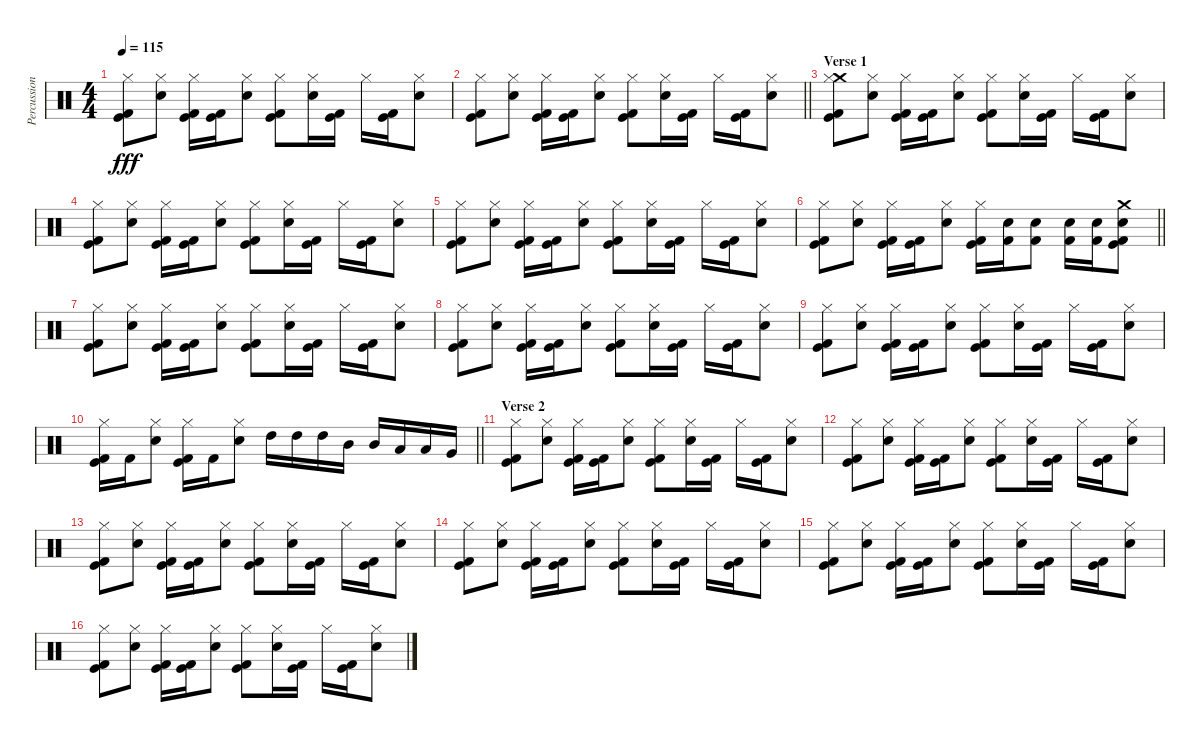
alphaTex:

\track ("Percussion" "Percussion") {instrument percussion}
\staff {score}
\articulation defaults
\ts (4 4)
\tempo 115
\clef neutral
\ks c
("Hi-Hat (closed)" "Kick (hit)" "Kick (hit) 2").8{dy fff} ("Snare (hit) 2" "Hi-Hat (closed)").8 ("Hi-Hat (closed)" "Kick (hit)" "Kick (hit) 2").16 ("Kick (hit)" "Kick (hit) 2").16 ("Snare (hit) 2" "Hi-Hat (closed)").8 ("Hi-Hat (closed)" "Kick (hit)" "Kick (hit) 2").8 ("Snare (hit) 2" "Hi-Hat (closed)").16 ("Kick (hit)" "Kick (hit) 2").16 "Hi-Hat (closed)".16 ("Kick (hit)" "Kick (hit) 2").16 ("Snare (hit) 2" "Hi-Hat (closed)").8 |
\barLineRight lightlight
("Hi-Hat (closed)" "Kick (hit)" "Kick (hit) 2").8 ("Snare (hit) 2" "Hi-Hat (closed)").8 ("Hi-Hat (closed)" "Kick (hit)" "Kick (hit) 2").16 ("Kick (hit)" "Kick (hit) 2").16 ("Snare (hit) 2" "Hi-Hat (closed)").8 ("Hi-Hat (closed)" "Kick (hit)" "Kick (hit) 2").8 ("Snare (hit) 2" "Hi-Hat (closed)").16 ("Kick (hit)" "Kick (hit) 2").16 "Hi-Hat (closed)".16 ("Kick (hit)" "Kick (hit) 2").16 ("Snare (hit) 2" "Hi-Hat (closed)").8 |
\section ("" "Verse 1")
("Crash medium (hit)" "Hi-Hat (closed)" "Kick (hit)" "Kick (hit) 2").8 ("Snare (hit) 2" "Hi-Hat (closed)").8 ("Hi-Hat (closed)" "Kick (hit)" "Kick (hit) 2").16 ("Kick (hit)" "Kick (hit) 2").16 ("Snare (hit) 2" "Hi-Hat (closed)").8 ("Hi-Hat (closed)" "Kick (hit)" "Kick (hit) 2").8 ("Snare (hit) 2" "Hi-Hat (closed)").16 ("Kick (hit)" "Kick (hit) 2").16 "Hi-Hat (closed)".16 ("Kick (hit)" "Kick (hit) 2").16 ("Snare (hit) 2" "Hi-Hat (closed)").8 |
("Hi-Hat (closed)" "Kick (hit)" "Kick (hit) 2").8 ("Snare (hit) 2" "Hi-Hat (closed)").8 ("Hi-Hat (closed)" "Kick (hit)" "Kick (hit) 2").16 ("Kick (hit)" "Kick (hit) 2").16 ("Snare (hit) 2" "Hi-Hat (closed)").8 ("Hi-Hat (closed)" "Kick (hit)" "Kick (hit) 2").8 ("Snare (hit) 2" "Hi-Hat (closed)").16 ("Kick (hit)" "Kick (hit) 2").16 "Hi-Hat (closed)".16 ("Kick (hit)" "Kick (hit) 2").16 ("Snare (hit) 2" "Hi-Hat (closed)").8 |
("Hi-Hat (closed)" "Kick (hit)" "Kick (hit) 2").8 ("Snare (hit) 2" "Hi-Hat (closed)").8 ("Hi-Hat (closed)" "Kick (hit)" "Kick (hit) 2").16 ("Kick (hit)" "Kick (hit) 2").16 ("Snare (hit) 2" "Hi-Hat (closed)").8 ("Hi-Hat (closed)" "Kick (hit)" "Kick (hit) 2").8 ("Snare (hit) 2" "Hi-Hat (closed)").16 ("Kick (hit)" "Kick (hit) 2").16 "Hi-Hat (closed)".16 ("Kick (hit)" "Kick (hit) 2").16 ("Snare (hit) 2" "Hi-Hat (closed)").8 |
\barLineRight lightlight
("Hi-Hat (closed)" "Kick (hit)" "Kick (hit) 2").8 ("Snare (hit) 2" "Hi-Hat (closed)").8 ("Hi-Hat (closed)" "Kick (hit)" "Kick (hit) 2").16 ("Kick (hit)" "Kick (hit) 2").16 ("Snare (hit) 2" "Hi-Hat (closed)").8 ("Hi-Hat (closed)" "Kick (hit)" "Kick (hit) 2").16 ("Snare (hit) 2" "Kick (hit) 2").16 ("Snare (hit) 2" "Kick (hit) 2").8 ("Snare (hit) 2" "Kick (hit) 2").16 ("Snare (hit) 2" "Kick (hit) 2").16 ("Crash medium (hit)" "Snare (hit) 2" "Kick (hit)" "Kick (hit) 2").8 |
("Hi-Hat (closed)" "Kick (hit)" "Kick (hit) 2").8 ("Snare (hit) 2" "Hi-Hat (closed)").8 ("Hi-Hat (closed)" "Kick (hit)" "Kick (hit) 2").16 ("Kick (hit)" "Kick (hit) 2").16 ("Snare (hit) 2" "Hi-Hat (closed)").8 ("Hi-Hat (closed)" "Kick (hit)" "Kick (hit) 2").8 ("Snare (hit) 2" "Hi-Hat (closed)").16 ("Kick (hit)" "Kick (hit) 2").16 "Hi-Hat (closed)".16 ("Kick (hit)" "Kick (hit) 2").16 ("Snare (hit) 2" "Hi-Hat (closed)").8 |
("Hi-Hat (closed)" "Kick (hit)" "Kick (hit) 2").8 ("Snare (hit) 2" "Hi-Hat (closed)").8 ("Hi-Hat (closed)" "Kick (hit)" "Kick (hit) 2").16 ("Kick (hit)" "Kick (hit) 2").16 ("Snare (hit) 2" "Hi-Hat (closed)").8 ("Hi-Hat (closed)" "Kick (hit)" "Kick (hit) 2").8 ("Snare (hit) 2" "Hi-Hat (closed)").16 ("Kick (hit)" "Kick (hit) 2").16 "Hi-Hat (closed)".16 ("Kick (hit)" "Kick (hit) 2").16 ("Snare (hit) 2" "Hi-Hat (closed)").8 |
("Hi-Hat (closed)" "Kick (hit)" "Kick (hit) 2").8 ("Snare (hit) 2" "Hi-Hat (closed)").8 ("Hi-Hat (closed)" "Kick (hit)" "Kick (hit) 2").16 ("Kick (hit)" "Kick (hit) 2").16 ("Snare (hit) 2" "Hi-Hat (closed)").8 ("Hi-Hat (closed)" "Kick (hit)" "Kick (hit) 2").8 ("Snare (hit) 2" "Hi-Hat (closed)").16 ("Kick (hit)" "Kick (hit) 2").16 "Hi-Hat (closed)".16 ("Kick (hit)" "Kick (hit) 2").16 ("Snare (hit) 2" "Hi-Hat (closed)").8 |
\barLineRight lightlight
("Hi-Hat (closed)" "Kick (hit)" "Kick (hit) 2").16 "Kick (hit) 2".16 ("Snare (hit) 2" "Hi-Hat (closed)").8 ("Hi-Hat (closed)" "Kick (hit)" "Kick (hit) 2").16 "Kick (hit) 2".16 ("Snare (hit) 2" "Hi-Hat (closed)").8 "High Tom (hit)".16 "High Tom (hit)".16 "High Tom (hit)".16 "Mid Tom (hit)".16 "Mid Tom (hit)".16 "Low Tom (hit)".16 "Low Tom (hit)".16 "Very Low Tom (hit)".16 |
\section ("" "Verse 2")
("Hi-Hat (closed)" "Kick (hit)" "Kick (hit) 2").8 ("Snare (hit) 2" "Hi-Hat (closed)").8 ("Hi-Hat (closed)" "Kick (hit)" "Kick (hit) 2").16 ("Kick (hit)" "Kick (hit) 2").16 ("Snare (hit) 2" "Hi-Hat (closed)").8 ("Hi-Hat (closed)" "Kick (hit)" "Kick (hit) 2").8 ("Snare (hit) 2" "Hi-Hat (closed)").16 ("Kick (hit)" "Kick (hit) 2").16 "Hi-Hat (closed)".16 ("Kick (hit)" "Kick (hit) 2").16 ("Snare (hit) 2" "Hi-Hat (closed)").8 |
("Hi-Hat (closed)" "Kick (hit)" "Kick (hit) 2").8 ("Snare (hit) 2" "Hi-Hat (closed)").8 ("Hi-Hat (closed)" "Kick (hit)" "Kick (hit) 2").16 ("Kick (hit)" "Kick (hit) 2").16 ("Snare (hit) 2" "Hi-Hat (closed)").8 ("Hi-Hat (closed)" "Kick (hit)" "Kick (hit) 2").8 ("Snare (hit) 2" "Hi-Hat (closed)").16 ("Kick (hit)" "Kick (hit) 2").16 "Hi-Hat (closed)".16 ("Kick (hit)" "Kick (hit) 2").16 ("Snare (hit) 2" "Hi-Hat (closed)").8 |
("Hi-Hat (closed)" "Kick (hit)" "Kick (hit) 2").8 ("Snare (hit) 2" "Hi-Hat (closed)").8 ("Hi-Hat (closed)" "Kick (hit)" "Kick (hit) 2").16 ("Kick (hit)" "Kick (hit) 2").16 ("Snare (hit) 2" "Hi-Hat (closed)").8 ("Hi-Hat (closed)" "Kick (hit)" "Kick (hit) 2").8 ("Snare (hit) 2" "Hi-Hat (closed)").16 ("Kick (hit)" "Kick (hit) 2").16 "Hi-Hat (closed)".16 ("Kick (hit)" "Kick (hit) 2").16 ("Snare (hit) 2" "Hi-Hat (closed)").8 |
("Hi-Hat (closed)" "Kick (hit)" "Kick (hit) 2").8 ("Snare (hit) 2" "Hi-Hat (closed)").8 ("Hi-Hat (closed)" "Kick (hit)" "Kick (hit) 2").16 ("Kick (hit)" "Kick (hit) 2").16 ("Snare (hit) 2" "Hi-Hat (closed)").8 ("Hi-Hat (closed)" "Kick (hit)" "Kick (hit) 2").8 ("Snare (hit) 2" "Hi-Hat (closed)").16 ("Kick (hit)" "Kick (hit) 2").16 "Hi-Hat (closed)".16 ("Kick (hit)" "Kick (hit) 2").16 ("Snare (hit) 2" "Hi-Hat (closed)").8 |
("Hi-Hat (closed)" "Kick (hit)" "Kick (hit) 2").8 ("Snare (hit) 2" "Hi-Hat (closed)").8 ("Hi-Hat (closed)" "Kick (hit)" "Kick (hit) 2").16 ("Kick (hit)" "Kick (hit) 2").16 ("Snare (hit) 2" "Hi-Hat (closed)").8 ("Hi-Hat (closed)" "Kick (hit)" "Kick (hit) 2").8 ("Snare (hit) 2" "Hi-Hat (closed)").16 ("Kick (hit)" "Kick (hit) 2").16 "Hi-Hat (closed)".16 ("Kick (hit)" "Kick (hit) 2").16 ("Snare (hit) 2" "Hi-Hat (closed)").8 |
("Hi-Hat (closed)" "Kick (hit)" "Kick (hit) 2").8 ("Snare (hit) 2" "Hi-Hat (closed)").8 ("Hi-Hat (closed)" "Kick (hit)" "Kick (hit) 2").16 ("Kick (hit)" "Kick (hit) 2").16 ("Snare (hit) 2" "Hi-Hat (closed)").8 ("Hi-Hat (closed)" "Kick (hit)" "Kick (hit) 2").8 ("Snare (hit) 2" "Hi-Hat (closed)").16 ("Kick (hit)" "Kick (hit) 2").16 "Hi-Hat (closed)".16 ("Kick (hit)" "Kick (hit) 2").16 ("Snare (hit) 2" "Hi-Hat (closed)").8
